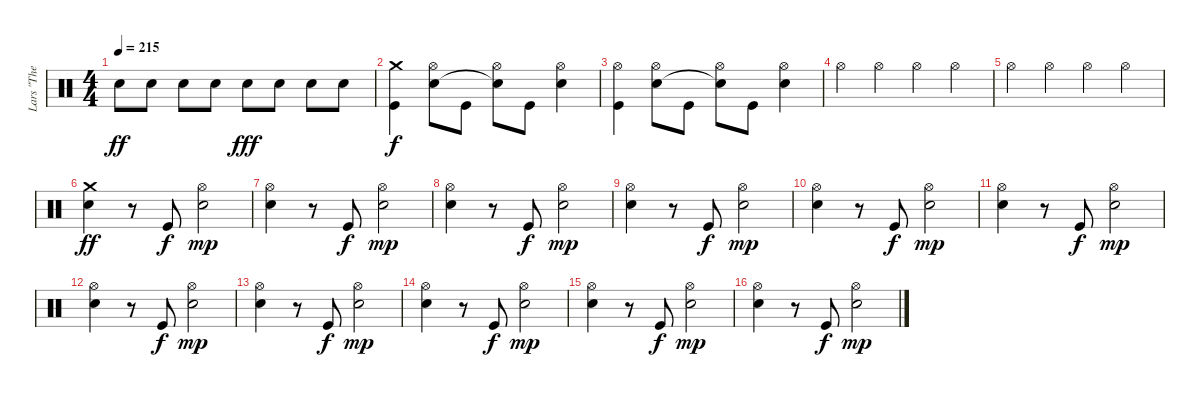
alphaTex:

\track ("Lars \"The Antichrist\" Ulrich" "Lars \"The ") {instrument percussion}
\staff {score}
\articulation defaults
\ts (4 4)
\tempo 215
\clef neutral
\ks c "Electric Snare (hit)".8{dy ff} "Electric Snare (hit)".8 "Electric Snare (hit)".8 "Electric Snare (hit)".8 "Electric Snare (hit)".8{dy fff} "Electric Snare (hit)".8 "Electric Snare (hit)".8 "Electric Snare (hit)".8
|
("Crash medium (hit)" "Kick (hit)").4{dy f} ("Hi-Hat (open)" "Electric Snare (hit)").8 "Kick (hit)".8 ("Hi-Hat (open)" "Snare (hit)"{t}).8 "Kick (hit)".8 ("Hi-Hat (open)" "Electric Snare (hit)").4 |
("Hi-Hat (open)" "Kick (hit)").4 ("Hi-Hat (open)" "Electric Snare (hit)").8 "Kick (hit)".8 ("Hi-Hat (open)" "Snare (hit)"{t}).8 "Kick (hit)".8 ("Hi-Hat (open)" "Electric Snare (hit)").4 |
"Hi-Hat (open)".4 "Hi-Hat (open)".4 "Hi-Hat (open)".4 "Hi-Hat (open)".4 |
"Hi-Hat (open)".4 "Hi-Hat (open)".4 "Hi-Hat (open)".4 "Hi-Hat (open)".4 |
("Crash medium (hit)" "Electric Snare (hit)").4{dy ff} r.8 "Kick (hit)".8{dy f} ("Hi-Hat (open)" "Electric Snare (hit)").2{dy mp} |
("Hi-Hat (open)" "Electric Snare (hit)").4 r.8 "Kick (hit)".8{dy f} ("Hi-Hat (open)" "Electric Snare (hit)").2{dy mp} |
("Hi-Hat (open)" "Electric Snare (hit)").4 r.8 "Kick (hit)".8{dy f} ("Hi-Hat (open)" "Electric Snare (hit)").2{dy mp} |
("Hi-Hat (open)" "Electric Snare (hit)").4 r.8 "Kick (hit)".8{dy f} ("Hi-Hat (open)" "Electric Snare (hit)").2{dy mp} |
("Hi-Hat (open)" "Electric Snare (hit)").4 r.8 "Kick (hit)".8{dy f} ("Hi-Hat (open)" "Electric Snare (hit)").2{dy mp} |
("Hi-Hat (open)" "Electric Snare (hit)").4 r.8 "Kick (hit)".8{dy f} ("Hi-Hat (open)" "Electric Snare (hit)").2{dy mp} |
("Hi-Hat (open)" "Electric Snare (hit)").4 r.8 "Kick (hit)".8{dy f} ("Hi-Hat (open)" "Electric Snare (hit)").2{dy mp} |
("Hi-Hat (open)" "Electric Snare (hit)").4 r.8 "Kick (hit)".8{dy f} ("Hi-Hat (open)" "Electric Snare (hit)").2{dy mp} |
("Hi-Hat (open)" "Electric Snare (hit)").4 r.8 "Kick (hit)".8{dy f} ("Hi-Hat (open)" "Electric Snare (hit)").2{dy mp} |
("Hi-Hat (open)" "Electric Snare (hit)").4 r.8 "Kick (hit)".8{dy f} ("Hi-Hat (open)" "Electric Snare (hit)").2{dy mp} |
("Hi-Hat (open)" "Electric Snare (hit)").4 r.8 "Kick (hit)".8{dy f} ("Hi-Hat (open)" "Electric Snare (hit)").2{dy mp}
